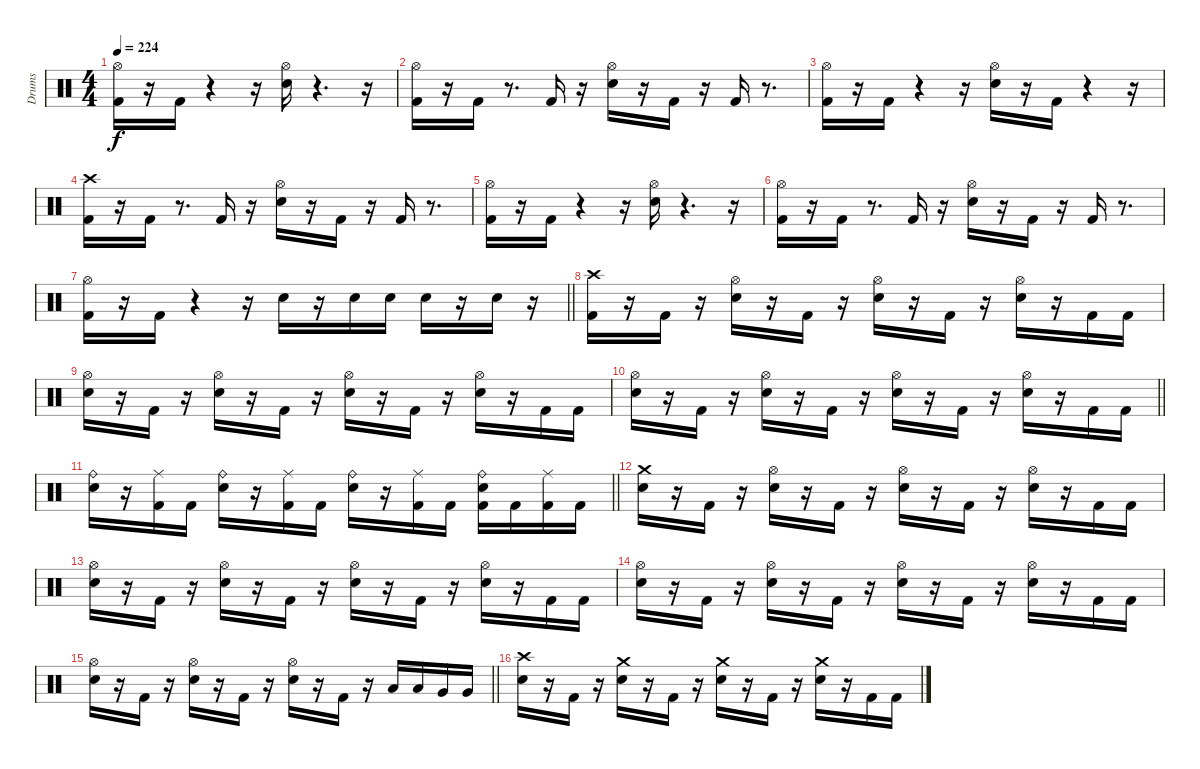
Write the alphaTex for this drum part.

\track ("Drums" "Drums") {instrument percussion}
\staff {score}
\articulation defaults
\ts (4 4)
\tempo 224
\clef neutral
\ks c
("Kick (hit) 2" "Hi-Hat (open)").16{dy f} r.16 "Kick (hit) 2".16 r.4 r.16 ("Snare (hit) 2" "Hi-Hat (open)").16 r.4{d} r.16 |
("Kick (hit) 2" "Hi-Hat (open)").16 r.16 "Kick (hit) 2".16 r.8{d} "Kick (hit) 2".16 r.16 ("Snare (hit) 2" "Hi-Hat (open)").16 r.16 "Kick (hit) 2".16 r.16 "Kick (hit) 2".16 r.8{d} |
("Kick (hit) 2" "Hi-Hat (open)").16 r.16 "Kick (hit) 2".16 r.4 r.16 ("Snare (hit) 2" "Hi-Hat (open)").16 r.16 "Kick (hit) 2".16 r.4 r.16 |
("Kick (hit) 2" "Crash high (hit)").16 r.16 "Kick (hit) 2".16 r.8{d} "Kick (hit) 2".16 r.16 ("Snare (hit) 2" "Hi-Hat (open)").16 r.16 "Kick (hit) 2".16 r.16 "Kick (hit) 2".16 r.8{d} |
("Kick (hit) 2" "Hi-Hat (open)").16 r.16 "Kick (hit) 2".16 r.4 r.16 ("Snare (hit) 2" "Hi-Hat (open)").16 r.4{d} r.16 |
("Kick (hit) 2" "Hi-Hat (open)").16 r.16 "Kick (hit) 2".16 r.8{d} "Kick (hit) 2".16 r.16 ("Snare (hit) 2" "Hi-Hat (open)").16 r.16 "Kick (hit) 2".16 r.16 "Kick (hit) 2".16 r.8{d} |
\barLineRight lightlight
("Kick (hit) 2" "Hi-Hat (open)").16 r.16 "Kick (hit) 2".16 r.4 r.16 "Snare (hit) 2".16 r.16 "Snare (hit) 2".16 "Snare (hit) 2".16 "Snare (hit) 2".16 r.16 "Snare (hit) 2".16 r.16 |
\section ("" " ")
("Kick (hit) 2" "Crash high (hit)").16 r.16 "Kick (hit) 2".16 r.16 ("Snare (hit) 2" "Hi-Hat (open)").16 r.16 "Kick (hit) 2".16 r.16 ("Snare (hit) 2" "Hi-Hat (open)").16 r.16 "Kick (hit) 2".16 r.16 ("Snare (hit) 2" "Hi-Hat (open)").16 r.16 "Kick (hit) 2".16 "Kick (hit) 2".16 |
("Snare (hit) 2" "Hi-Hat (open)").16 r.16 "Kick (hit) 2".16 r.16 ("Snare (hit) 2" "Hi-Hat (open)").16 r.16 "Kick (hit) 2".16 r.16 ("Snare (hit) 2" "Hi-Hat (open)").16 r.16 "Kick (hit) 2".16 r.16 ("Snare (hit) 2" "Hi-Hat (open)").16 r.16 "Kick (hit) 2".16 "Kick (hit) 2".16 |
\barLineRight lightlight
("Snare (hit) 2" "Hi-Hat (open)").16 r.16 "Kick (hit) 2".16 r.16 ("Snare (hit) 2" "Hi-Hat (open)").16 r.16 "Kick (hit) 2".16 r.16 ("Snare (hit) 2" "Hi-Hat (open)").16 r.16 "Kick (hit) 2".16 r.16 ("Snare (hit) 2" "Hi-Hat (open)").16 r.16 "Kick (hit) 2".16 "Kick (hit) 2".16 |
\barLineRight lightlight
("Snare (hit) 2" "Ride (bell)").16 r.16 ("Kick (hit) 2" "Ride (middle)").16 "Kick (hit) 2".16 ("Snare (hit) 2" "Ride (bell)").16 r.16 ("Kick (hit) 2" "Ride (middle)").16 "Kick (hit) 2".16 ("Snare (hit) 2" "Ride (bell)").16 r.16 ("Kick (hit) 2" "Ride (middle)").16 "Kick (hit) 2".16 ("Kick (hit) 2" "Snare (hit) 2" "Ride (bell)").16 "Kick (hit) 2".16 ("Kick (hit) 2" "Ride (middle)").16 "Kick (hit) 2".16 |
("Snare (hit) 2" "Crash medium (hit)").16 r.16 "Kick (hit) 2".16 r.16 ("Snare (hit) 2" "Hi-Hat (open)").16 r.16 "Kick (hit) 2".16 r.16 ("Snare (hit) 2" "Hi-Hat (open)").16 r.16 "Kick (hit) 2".16 r.16 ("Snare (hit) 2" "Hi-Hat (open)").16 r.16 "Kick (hit) 2".16 "Kick (hit) 2".16 |
("Snare (hit) 2" "Hi-Hat (open)").16 r.16 "Kick (hit) 2".16 r.16 ("Snare (hit) 2" "Hi-Hat (open)").16 r.16 "Kick (hit) 2".16 r.16 ("Snare (hit) 2" "Hi-Hat (open)").16 r.16 "Kick (hit) 2".16 r.16 ("Snare (hit) 2" "Hi-Hat (open)").16 r.16 "Kick (hit) 2".16 "Kick (hit) 2".16 |
("Snare (hit) 2" "Hi-Hat (open)").16 r.16 "Kick (hit) 2".16 r.16 ("Snare (hit) 2" "Hi-Hat (open)").16 r.16 "Kick (hit) 2".16 r.16 ("Snare (hit) 2" "Hi-Hat (open)").16 r.16 "Kick (hit) 2".16 r.16 ("Snare (hit) 2" "Hi-Hat (open)").16 r.16 "Kick (hit) 2".16 "Kick (hit) 2".16 |
\barLineRight lightlight
("Snare (hit) 2" "Hi-Hat (open)").16 r.16 "Kick (hit) 2".16 r.16 ("Snare (hit) 2" "Hi-Hat (open)").16 r.16 "Kick (hit) 2".16 r.16 ("Snare (hit) 2" "Hi-Hat (open)").16 r.16 "Kick (hit) 2".16 r.16 "Low Tom (hit)".16 "Low Tom (hit)".16 "Very Low Tom (hit)".16 "Very Low Tom (hit)".16 |
("Snare (hit) 2" "Crash high (hit)").16 r.16 "Kick (hit) 2".16 r.16 ("Snare (hit) 2" "Crash medium (hit)").16 r.16 "Kick (hit) 2".16 r.16 ("Snare (hit) 2" "Crash medium (hit)").16 r.16 "Kick (hit) 2".16 r.16 ("Snare (hit) 2" "Crash medium (hit)").16 r.16 "Kick (hit) 2".16 "Kick (hit) 2".16
